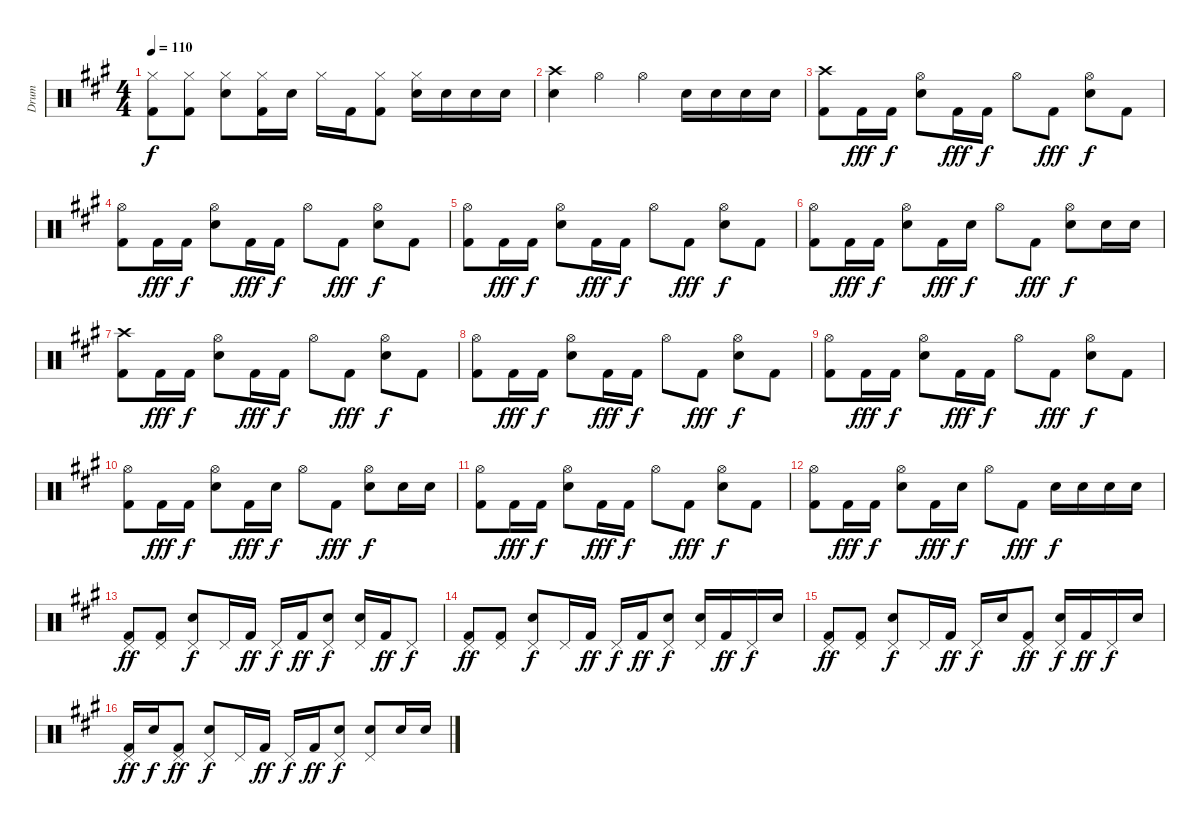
\track ("Drum" "Drum") {instrument percussion}
\staff {score}
\articulation defaults
\ts (4 4)
\tempo 110
\clef neutral
\ks a
("Hi-Hat (closed)" "Kick (hit) 2").8{dy f} ("Hi-Hat (closed)" "Kick (hit) 2").8 ("Hi-Hat (closed)" "Electric Snare (hit)").8 ("Hi-Hat (closed)" "Kick (hit) 2").16 "Electric Snare (hit)".16 "Hi-Hat (closed)".16 "Kick (hit) 2".16 ("Hi-Hat (closed)" "Kick (hit) 2").8 ("Hi-Hat (closed)" "Electric Snare (hit)").16 "Electric Snare (hit)".16 "Electric Snare (hit)".16 "Electric Snare (hit)".16 |
("Crash high (hit)" "Electric Snare (hit)").4 "Hi-Hat (open)".4 "Hi-Hat (open)".4 "Electric Snare (hit)".16 "Electric Snare (hit)".16 "Electric Snare (hit)".16 "Electric Snare (hit)".16 |
("Crash high (hit)" "Kick (hit) 2").8 "Kick (hit) 2".16{dy fff} "Kick (hit) 2".16{dy f} ("Hi-Hat (open)" "Electric Snare (hit)").8 "Kick (hit) 2".16{dy fff} "Kick (hit) 2".16{dy f} "Hi-Hat (open)".8 "Kick (hit) 2".8{dy fff} ("Hi-Hat (open)" "Electric Snare (hit)").8{dy f} "Kick (hit) 2".8 |
("Hi-Hat (open)" "Kick (hit) 2").8 "Kick (hit) 2".16{dy fff} "Kick (hit) 2".16{dy f} ("Hi-Hat (open)" "Electric Snare (hit)").8 "Kick (hit) 2".16{dy fff} "Kick (hit) 2".16{dy f} "Hi-Hat (open)".8 "Kick (hit) 2".8{dy fff} ("Hi-Hat (open)" "Electric Snare (hit)").8{dy f} "Kick (hit) 2".8 |
("Hi-Hat (open)" "Kick (hit) 2").8 "Kick (hit) 2".16{dy fff} "Kick (hit) 2".16{dy f} ("Hi-Hat (open)" "Electric Snare (hit)").8 "Kick (hit) 2".16{dy fff} "Kick (hit) 2".16{dy f} "Hi-Hat (open)".8 "Kick (hit) 2".8{dy fff} ("Hi-Hat (open)" "Electric Snare (hit)").8{dy f} "Kick (hit) 2".8 |
("Hi-Hat (open)" "Kick (hit) 2").8 "Kick (hit) 2".16{dy fff} "Kick (hit) 2".16{dy f} ("Hi-Hat (open)" "Electric Snare (hit)").8 "Kick (hit) 2".16{dy fff} "Electric Snare (hit)".16{dy f} "Hi-Hat (open)".8 "Kick (hit) 2".8{dy fff} ("Hi-Hat (open)" "Electric Snare (hit)").8{dy f} "Electric Snare (hit)".16 "Electric Snare (hit)".16 |
("Crash high (hit)" "Kick (hit) 2").8 "Kick (hit) 2".16{dy fff} "Kick (hit) 2".16{dy f} ("Hi-Hat (open)" "Electric Snare (hit)").8 "Kick (hit) 2".16{dy fff} "Kick (hit) 2".16{dy f} "Hi-Hat (open)".8 "Kick (hit) 2".8{dy fff} ("Hi-Hat (open)" "Electric Snare (hit)").8{dy f} "Kick (hit) 2".8 |
("Hi-Hat (open)" "Kick (hit) 2").8 "Kick (hit) 2".16{dy fff} "Kick (hit) 2".16{dy f} ("Hi-Hat (open)" "Electric Snare (hit)").8 "Kick (hit) 2".16{dy fff} "Kick (hit) 2".16{dy f} "Hi-Hat (open)".8 "Kick (hit) 2".8{dy fff} ("Hi-Hat (open)" "Electric Snare (hit)").8{dy f} "Kick (hit) 2".8 |
("Hi-Hat (open)" "Kick (hit) 2").8 "Kick (hit) 2".16{dy fff} "Kick (hit) 2".16{dy f} ("Hi-Hat (open)" "Electric Snare (hit)").8 "Kick (hit) 2".16{dy fff} "Kick (hit) 2".16{dy f} "Hi-Hat (open)".8 "Kick (hit) 2".8{dy fff} ("Hi-Hat (open)" "Electric Snare (hit)").8{dy f} "Kick (hit) 2".8 |
("Hi-Hat (open)" "Kick (hit) 2").8 "Kick (hit) 2".16{dy fff} "Kick (hit) 2".16{dy f} ("Hi-Hat (open)" "Electric Snare (hit)").8 "Kick (hit) 2".16{dy fff} "Electric Snare (hit)".16{dy f} "Hi-Hat (open)".8 "Kick (hit) 2".8{dy fff} ("Hi-Hat (open)" "Electric Snare (hit)").8{dy f} "Electric Snare (hit)".16 "Electric Snare (hit)".16 |
("Hi-Hat (open)" "Kick (hit) 2").8 "Kick (hit) 2".16{dy fff} "Kick (hit) 2".16{dy f} ("Hi-Hat (open)" "Electric Snare (hit)").8 "Kick (hit) 2".16{dy fff} "Kick (hit) 2".16{dy f} "Hi-Hat (open)".8 "Kick (hit) 2".8{dy fff} ("Hi-Hat (open)" "Electric Snare (hit)").8{dy f} "Kick (hit) 2".8 |
("Hi-Hat (open)" "Kick (hit) 2").8 "Kick (hit) 2".16{dy fff} "Kick (hit) 2".16{dy f} ("Hi-Hat (open)" "Electric Snare (hit)").8 "Kick (hit) 2".16{dy fff} "Electric Snare (hit)".16{dy f} "Hi-Hat (open)".8 "Kick (hit) 2".8{dy fff} "Electric Snare (hit)".16{dy f} "Electric Snare (hit)".16 "Electric Snare (hit)".16 "Electric Snare (hit)".16 |
("Pedal Hi-Hat (hit)" "Kick (hit) 2").8{dy ff} ("Pedal Hi-Hat (hit)" "Kick (hit) 2").8 ("Pedal Hi-Hat (hit)" "Electric Snare (hit)").8{dy f} "Pedal Hi-Hat (hit)".16 "Kick (hit) 2".16{dy ff} "Pedal Hi-Hat (hit)".16{dy f} "Kick (hit) 2".16{dy ff} ("Pedal Hi-Hat (hit)" "Electric Snare (hit)").8{dy f} ("Pedal Hi-Hat (hit)" "Electric Snare (hit)").16 "Kick (hit) 2".16{dy ff} "Pedal Hi-Hat (hit)".8{dy f} |
("Pedal Hi-Hat (hit)" "Kick (hit) 2").8{dy ff} ("Pedal Hi-Hat (hit)" "Kick (hit) 2").8 ("Pedal Hi-Hat (hit)" "Electric Snare (hit)").8{dy f} "Pedal Hi-Hat (hit)".16 "Kick (hit) 2".16{dy ff} "Pedal Hi-Hat (hit)".16{dy f} "Kick (hit) 2".16{dy ff} ("Pedal Hi-Hat (hit)" "Electric Snare (hit)").8{dy f} ("Pedal Hi-Hat (hit)" "Electric Snare (hit)").16 "Kick (hit) 2".16{dy ff} "Pedal Hi-Hat (hit)".16{dy f} "Electric Snare (hit)".16 |
("Pedal Hi-Hat (hit)" "Kick (hit) 2").8{dy ff} ("Pedal Hi-Hat (hit)" "Kick (hit) 2").8 ("Pedal Hi-Hat (hit)" "Electric Snare (hit)").8{dy f} "Pedal Hi-Hat (hit)".16 "Kick (hit) 2".16{dy ff} "Pedal Hi-Hat (hit)".16{dy f} "Electric Snare (hit)".16 ("Pedal Hi-Hat (hit)" "Kick (hit) 2").8{dy ff} ("Pedal Hi-Hat (hit)" "Electric Snare (hit)").16{dy f} "Kick (hit) 2".16{dy ff} "Pedal Hi-Hat (hit)".16{dy f} "Electric Snare (hit)".16 |
("Pedal Hi-Hat (hit)" "Kick (hit) 2").16{dy ff} "Electric Snare (hit)".16{dy f} ("Pedal Hi-Hat (hit)" "Kick (hit) 2").8{dy ff} ("Pedal Hi-Hat (hit)" "Electric Snare (hit)").8{dy f} "Pedal Hi-Hat (hit)".16 "Kick (hit) 2".16{dy ff} "Pedal Hi-Hat (hit)".16{dy f} "Kick (hit) 2".16{dy ff} ("Pedal Hi-Hat (hit)" "Electric Snare (hit)").8{dy f} ("Pedal Hi-Hat (hit)" "Electric Snare (hit)").8 "Electric Snare (hit)".16 "Electric Snare (hit)".16
